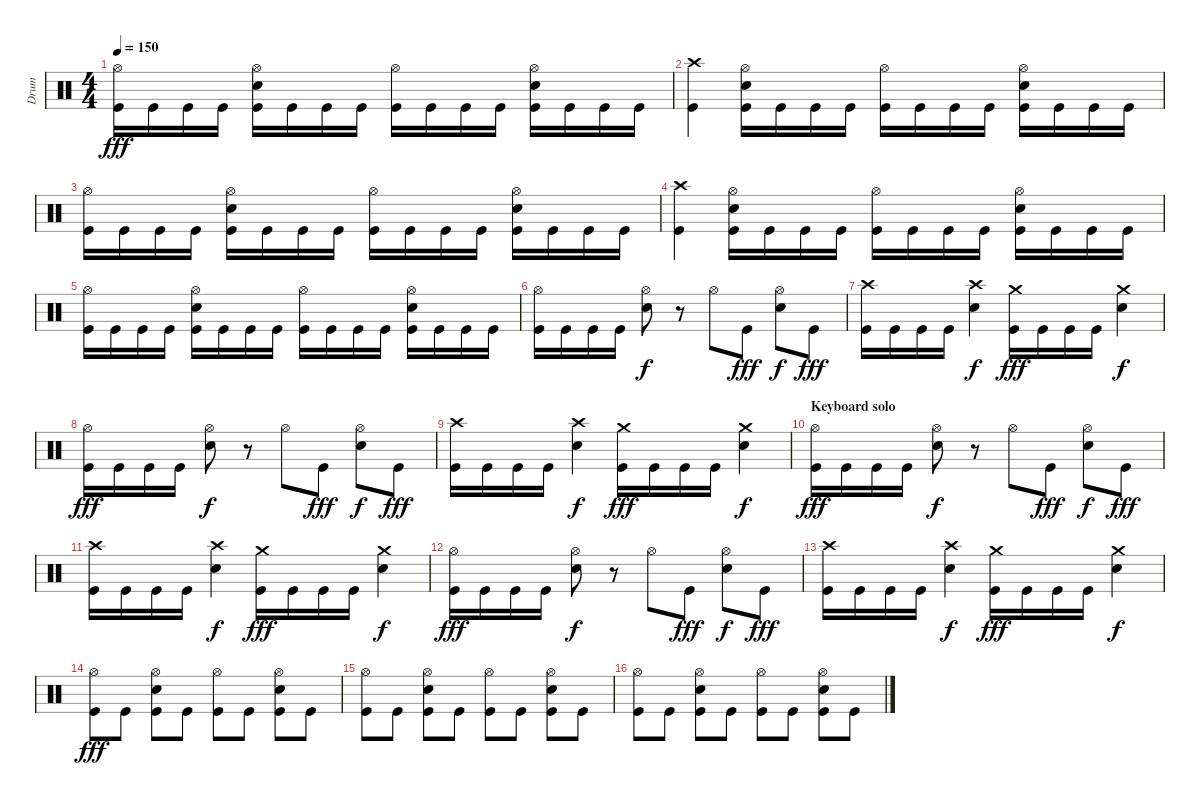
\track ("Drum" "Drum") {instrument percussion}
\staff {score}
\articulation defaults
\ts (4 4)
\tempo 150
\clef neutral
\ks c
("Hi-Hat (open)" "Kick (hit)").16{dy fff} "Kick (hit)".16 "Kick (hit)".16 "Kick (hit)".16 ("Hi-Hat (open)" "Snare (hit) 2" "Kick (hit)").16 "Kick (hit)".16 "Kick (hit)".16 "Kick (hit)".16 ("Hi-Hat (open)" "Kick (hit)").16 "Kick (hit)".16 "Kick (hit)".16 "Kick (hit)".16 ("Hi-Hat (open)" "Snare (hit) 2" "Kick (hit)").16 "Kick (hit)".16 "Kick (hit)".16 "Kick (hit)".16 |
("Crash high (hit)" "Kick (hit)").4 ("Hi-Hat (open)" "Snare (hit) 2" "Kick (hit)").16 "Kick (hit)".16 "Kick (hit)".16 "Kick (hit)".16 ("Hi-Hat (open)" "Kick (hit)").16 "Kick (hit)".16 "Kick (hit)".16 "Kick (hit)".16 ("Hi-Hat (open)" "Snare (hit) 2" "Kick (hit)").16 "Kick (hit)".16 "Kick (hit)".16 "Kick (hit)".16 |
("Hi-Hat (open)" "Kick (hit)").16 "Kick (hit)".16 "Kick (hit)".16 "Kick (hit)".16 ("Hi-Hat (open)" "Snare (hit) 2" "Kick (hit)").16 "Kick (hit)".16 "Kick (hit)".16 "Kick (hit)".16 ("Hi-Hat (open)" "Kick (hit)").16 "Kick (hit)".16 "Kick (hit)".16 "Kick (hit)".16 ("Hi-Hat (open)" "Snare (hit) 2" "Kick (hit)").16 "Kick (hit)".16 "Kick (hit)".16 "Kick (hit)".16 |
("Crash high (hit)" "Kick (hit)").4 ("Hi-Hat (open)" "Snare (hit) 2" "Kick (hit)").16 "Kick (hit)".16 "Kick (hit)".16 "Kick (hit)".16 ("Hi-Hat (open)" "Kick (hit)").16 "Kick (hit)".16 "Kick (hit)".16 "Kick (hit)".16 ("Hi-Hat (open)" "Snare (hit) 2" "Kick (hit)").16 "Kick (hit)".16 "Kick (hit)".16 "Kick (hit)".16 |
("Hi-Hat (open)" "Kick (hit)").16 "Kick (hit)".16 "Kick (hit)".16 "Kick (hit)".16 ("Hi-Hat (open)" "Snare (hit) 2" "Kick (hit)").16 "Kick (hit)".16 "Kick (hit)".16 "Kick (hit)".16 ("Hi-Hat (open)" "Kick (hit)").16 "Kick (hit)".16 "Kick (hit)".16 "Kick (hit)".16 ("Hi-Hat (open)" "Snare (hit) 2" "Kick (hit)").16 "Kick (hit)".16 "Kick (hit)".16 "Kick (hit)".16 |
("Hi-Hat (open)" "Kick (hit)").16 "Kick (hit)".16 "Kick (hit)".16 "Kick (hit)".16 ("Hi-Hat (open)" "Snare (hit) 2").8{dy f} r.8 "Hi-Hat (open)".8 "Kick (hit)".8{dy fff} ("Hi-Hat (open)" "Snare (hit) 2").8{dy f} "Kick (hit)".8{dy fff} |
("Crash high (hit)" "Kick (hit)").16 "Kick (hit)".16 "Kick (hit)".16 "Kick (hit)".16 ("Crash high (hit)" "Snare (hit) 2").4{dy f} ("Crash medium (hit)" "Kick (hit)").16{dy fff} "Kick (hit)".16 "Kick (hit)".16 "Kick (hit)".16 ("Crash medium (hit)" "Snare (hit) 2").4{dy f} |
("Hi-Hat (open)" "Kick (hit)").16{dy fff} "Kick (hit)".16 "Kick (hit)".16 "Kick (hit)".16 ("Hi-Hat (open)" "Snare (hit) 2").8{dy f} r.8 "Hi-Hat (open)".8 "Kick (hit)".8{dy fff} ("Hi-Hat (open)" "Snare (hit) 2").8{dy f} "Kick (hit)".8{dy fff} |
("Crash high (hit)" "Kick (hit)").16 "Kick (hit)".16 "Kick (hit)".16 "Kick (hit)".16 ("Crash high (hit)" "Snare (hit) 2").4{dy f} ("Crash medium (hit)" "Kick (hit)").16{dy fff} "Kick (hit)".16 "Kick (hit)".16 "Kick (hit)".16 ("Crash medium (hit)" "Snare (hit) 2").4{dy f} |
\section ("" "Keyboard solo")
("Hi-Hat (open)" "Kick (hit)").16{dy fff} "Kick (hit)".16 "Kick (hit)".16 "Kick (hit)".16 ("Hi-Hat (open)" "Snare (hit) 2").8{dy f} r.8 "Hi-Hat (open)".8 "Kick (hit)".8{dy fff} ("Hi-Hat (open)" "Snare (hit) 2").8{dy f} "Kick (hit)".8{dy fff} |
("Crash high (hit)" "Kick (hit)").16 "Kick (hit)".16 "Kick (hit)".16 "Kick (hit)".16 ("Crash high (hit)" "Snare (hit) 2").4{dy f} ("Crash medium (hit)" "Kick (hit)").16{dy fff} "Kick (hit)".16 "Kick (hit)".16 "Kick (hit)".16 ("Crash medium (hit)" "Snare (hit) 2").4{dy f} |
("Hi-Hat (open)" "Kick (hit)").16{dy fff} "Kick (hit)".16 "Kick (hit)".16 "Kick (hit)".16 ("Hi-Hat (open)" "Snare (hit) 2").8{dy f} r.8 "Hi-Hat (open)".8 "Kick (hit)".8{dy fff} ("Hi-Hat (open)" "Snare (hit) 2").8{dy f} "Kick (hit)".8{dy fff} |
("Crash high (hit)" "Kick (hit)").16 "Kick (hit)".16 "Kick (hit)".16 "Kick (hit)".16 ("Crash high (hit)" "Snare (hit) 2").4{dy f} ("Crash medium (hit)" "Kick (hit)").16{dy fff} "Kick (hit)".16 "Kick (hit)".16 "Kick (hit)".16 ("Crash medium (hit)" "Snare (hit) 2").4{dy f} |
("Hi-Hat (open)" "Kick (hit)").8{dy fff} "Kick (hit)".8 ("Hi-Hat (open)" "Snare (hit) 2" "Kick (hit)").8 "Kick (hit)".8 ("Hi-Hat (open)" "Kick (hit)").8 "Kick (hit)".8 ("Hi-Hat (open)" "Snare (hit) 2" "Kick (hit)").8 "Kick (hit)".8 |
("Hi-Hat (open)" "Kick (hit)").8 "Kick (hit)".8 ("Hi-Hat (open)" "Snare (hit) 2" "Kick (hit)").8 "Kick (hit)".8 ("Hi-Hat (open)" "Kick (hit)").8 "Kick (hit)".8 ("Hi-Hat (open)" "Snare (hit) 2" "Kick (hit)").8 "Kick (hit)".8 |
("Hi-Hat (open)" "Kick (hit)").8 "Kick (hit)".8 ("Hi-Hat (open)" "Snare (hit) 2" "Kick (hit)").8 "Kick (hit)".8 ("Hi-Hat (open)" "Kick (hit)").8 "Kick (hit)".8 ("Hi-Hat (open)" "Snare (hit) 2" "Kick (hit)").8 "Kick (hit)".8
